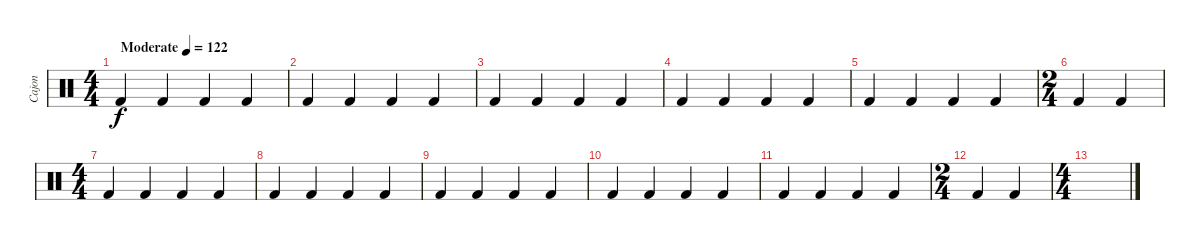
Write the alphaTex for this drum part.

\track ("Cajon" "Cajon") {instrument percussion}
\staff {score}
\articulation defaults
\ts (4 4)
\tempo (122 "Moderate")
\clef neutral
\ks c "Kick (hit) 2".4{dy f} "Kick (hit) 2".4 "Kick (hit) 2".4 "Kick (hit) 2".4
|
"Kick (hit) 2".4 "Kick (hit) 2".4 "Kick (hit) 2".4 "Kick (hit) 2".4 |
"Kick (hit) 2".4 "Kick (hit) 2".4 "Kick (hit) 2".4 "Kick (hit) 2".4 |
"Kick (hit) 2".4 "Kick (hit) 2".4 "Kick (hit) 2".4 "Kick (hit) 2".4 |
"Kick (hit) 2".4 "Kick (hit) 2".4 "Kick (hit) 2".4 "Kick (hit) 2".4 |
\ts (2 4)
"Kick (hit) 2".4 "Kick (hit) 2".4 |
\ts (4 4)
"Kick (hit) 2".4 "Kick (hit) 2".4 "Kick (hit) 2".4 "Kick (hit) 2".4 |
"Kick (hit) 2".4 "Kick (hit) 2".4 "Kick (hit) 2".4 "Kick (hit) 2".4 |
"Kick (hit) 2".4 "Kick (hit) 2".4 "Kick (hit) 2".4 "Kick (hit) 2".4 |
"Kick (hit) 2".4 "Kick (hit) 2".4 "Kick (hit) 2".4 "Kick (hit) 2".4 |
"Kick (hit) 2".4 "Kick (hit) 2".4 "Kick (hit) 2".4 "Kick (hit) 2".4 |
\ts (2 4)
"Kick (hit) 2".4 "Kick (hit) 2".4 |
\ts (4 4)
